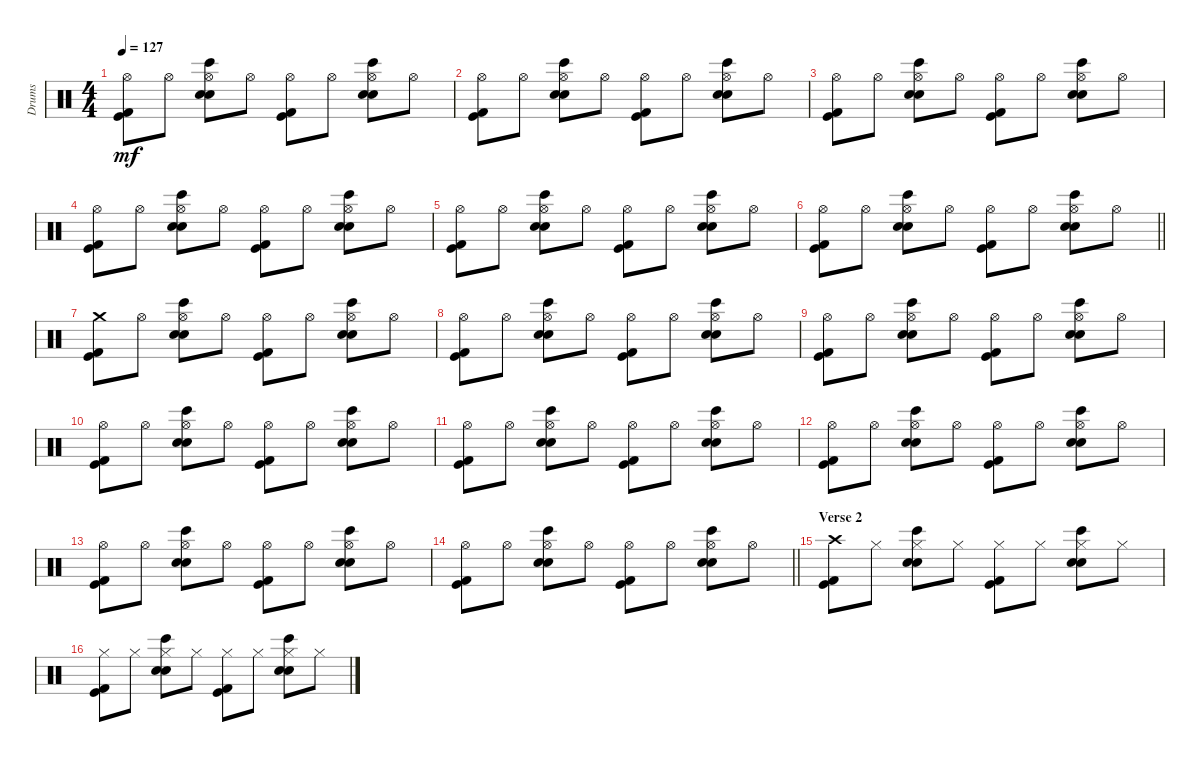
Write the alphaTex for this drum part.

\track ("Drums" "Drums") {instrument percussion}
\staff {score}
\articulation defaults
\ts (4 4)
\tempo 127
\clef neutral
\ks c
("Hi-Hat (open)" "Kick (hit) 2" "Kick (hit)").8{dy mf} "Hi-Hat (open)".8 ("Hi-Hat (open)" "Bongo High (hit)" "Snare (hit) 2" "Electric Snare (hit)").8 "Hi-Hat (open)".8 ("Hi-Hat (open)" "Kick (hit) 2" "Kick (hit)").8 "Hi-Hat (open)".8 ("Hi-Hat (open)" "Bongo High (hit)" "Snare (hit) 2" "Electric Snare (hit)").8 "Hi-Hat (open)".8 |
("Hi-Hat (open)" "Kick (hit) 2" "Kick (hit)").8 "Hi-Hat (open)".8 ("Hi-Hat (open)" "Bongo High (hit)" "Snare (hit) 2" "Electric Snare (hit)").8 "Hi-Hat (open)".8 ("Hi-Hat (open)" "Kick (hit) 2" "Kick (hit)").8 "Hi-Hat (open)".8 ("Hi-Hat (open)" "Bongo High (hit)" "Snare (hit) 2" "Electric Snare (hit)").8 "Hi-Hat (open)".8 |
("Hi-Hat (open)" "Kick (hit) 2" "Kick (hit)").8 "Hi-Hat (open)".8 ("Hi-Hat (open)" "Bongo High (hit)" "Snare (hit) 2" "Electric Snare (hit)").8 "Hi-Hat (open)".8 ("Hi-Hat (open)" "Kick (hit) 2" "Kick (hit)").8 "Hi-Hat (open)".8 ("Hi-Hat (open)" "Bongo High (hit)" "Snare (hit) 2" "Electric Snare (hit)").8 "Hi-Hat (open)".8 |
("Hi-Hat (open)" "Kick (hit) 2" "Kick (hit)").8 "Hi-Hat (open)".8 ("Hi-Hat (open)" "Bongo High (hit)" "Snare (hit) 2" "Electric Snare (hit)").8 "Hi-Hat (open)".8 ("Hi-Hat (open)" "Kick (hit) 2" "Kick (hit)").8 "Hi-Hat (open)".8 ("Hi-Hat (open)" "Bongo High (hit)" "Snare (hit) 2" "Electric Snare (hit)").8 "Hi-Hat (open)".8 |
("Hi-Hat (open)" "Kick (hit) 2" "Kick (hit)").8 "Hi-Hat (open)".8 ("Hi-Hat (open)" "Bongo High (hit)" "Snare (hit) 2" "Electric Snare (hit)").8 "Hi-Hat (open)".8 ("Hi-Hat (open)" "Kick (hit) 2" "Kick (hit)").8 "Hi-Hat (open)".8 ("Hi-Hat (open)" "Bongo High (hit)" "Snare (hit) 2" "Electric Snare (hit)").8 "Hi-Hat (open)".8 |
\barLineRight lightlight
("Hi-Hat (open)" "Kick (hit) 2" "Kick (hit)").8 "Hi-Hat (open)".8 ("Hi-Hat (open)" "Bongo High (hit)" "Snare (hit) 2" "Electric Snare (hit)").8 "Hi-Hat (open)".8 ("Hi-Hat (open)" "Kick (hit) 2" "Kick (hit)").8 "Hi-Hat (open)".8 ("Hi-Hat (open)" "Bongo High (hit)" "Snare (hit) 2" "Electric Snare (hit)").8 "Hi-Hat (open)".8 |
("Crash medium (hit)" "Kick (hit) 2" "Kick (hit)").8 "Hi-Hat (open)".8 ("Hi-Hat (open)" "Bongo High (hit)" "Snare (hit) 2" "Electric Snare (hit)").8 "Hi-Hat (open)".8 ("Hi-Hat (open)" "Kick (hit) 2" "Kick (hit)").8 "Hi-Hat (open)".8 ("Hi-Hat (open)" "Bongo High (hit)" "Snare (hit) 2" "Electric Snare (hit)").8 "Hi-Hat (open)".8 |
("Hi-Hat (open)" "Kick (hit) 2" "Kick (hit)").8 "Hi-Hat (open)".8 ("Hi-Hat (open)" "Bongo High (hit)" "Snare (hit) 2" "Electric Snare (hit)").8 "Hi-Hat (open)".8 ("Hi-Hat (open)" "Kick (hit) 2" "Kick (hit)").8 "Hi-Hat (open)".8 ("Hi-Hat (open)" "Bongo High (hit)" "Snare (hit) 2" "Electric Snare (hit)").8 "Hi-Hat (open)".8 |
("Hi-Hat (open)" "Kick (hit) 2" "Kick (hit)").8 "Hi-Hat (open)".8 ("Hi-Hat (open)" "Bongo High (hit)" "Snare (hit) 2" "Electric Snare (hit)").8 "Hi-Hat (open)".8 ("Hi-Hat (open)" "Kick (hit) 2" "Kick (hit)").8 "Hi-Hat (open)".8 ("Hi-Hat (open)" "Bongo High (hit)" "Snare (hit) 2" "Electric Snare (hit)").8 "Hi-Hat (open)".8 |
("Hi-Hat (open)" "Kick (hit) 2" "Kick (hit)").8 "Hi-Hat (open)".8 ("Hi-Hat (open)" "Bongo High (hit)" "Snare (hit) 2" "Electric Snare (hit)").8 "Hi-Hat (open)".8 ("Hi-Hat (open)" "Kick (hit) 2" "Kick (hit)").8 "Hi-Hat (open)".8 ("Hi-Hat (open)" "Bongo High (hit)" "Snare (hit) 2" "Electric Snare (hit)").8 "Hi-Hat (open)".8 |
("Hi-Hat (open)" "Kick (hit) 2" "Kick (hit)").8 "Hi-Hat (open)".8 ("Hi-Hat (open)" "Bongo High (hit)" "Snare (hit) 2" "Electric Snare (hit)").8 "Hi-Hat (open)".8 ("Hi-Hat (open)" "Kick (hit) 2" "Kick (hit)").8 "Hi-Hat (open)".8 ("Hi-Hat (open)" "Bongo High (hit)" "Snare (hit) 2" "Electric Snare (hit)").8 "Hi-Hat (open)".8 |
("Hi-Hat (open)" "Kick (hit) 2" "Kick (hit)").8 "Hi-Hat (open)".8 ("Hi-Hat (open)" "Bongo High (hit)" "Snare (hit) 2" "Electric Snare (hit)").8 "Hi-Hat (open)".8 ("Hi-Hat (open)" "Kick (hit) 2" "Kick (hit)").8 "Hi-Hat (open)".8 ("Hi-Hat (open)" "Bongo High (hit)" "Snare (hit) 2" "Electric Snare (hit)").8 "Hi-Hat (open)".8 |
("Hi-Hat (open)" "Kick (hit) 2" "Kick (hit)").8 "Hi-Hat (open)".8 ("Hi-Hat (open)" "Bongo High (hit)" "Snare (hit) 2" "Electric Snare (hit)").8 "Hi-Hat (open)".8 ("Hi-Hat (open)" "Kick (hit) 2" "Kick (hit)").8 "Hi-Hat (open)".8 ("Hi-Hat (open)" "Bongo High (hit)" "Snare (hit) 2" "Electric Snare (hit)").8 "Hi-Hat (open)".8 |
\barLineRight lightlight
("Hi-Hat (open)" "Kick (hit) 2" "Kick (hit)").8 "Hi-Hat (open)".8 ("Hi-Hat (open)" "Bongo High (hit)" "Snare (hit) 2" "Electric Snare (hit)").8 "Hi-Hat (open)".8 ("Hi-Hat (open)" "Kick (hit) 2" "Kick (hit)").8 "Hi-Hat (open)".8 ("Hi-Hat (open)" "Bongo High (hit)" "Snare (hit) 2" "Electric Snare (hit)").8 "Hi-Hat (open)".8 |
\section ("" "Verse 2")
("Crash high (hit)" "Kick (hit) 2" "Kick (hit)").8 "Hi-Hat (closed)".8 ("Hi-Hat (closed)" "Bongo High (hit)" "Snare (hit) 2" "Electric Snare (hit)").8 "Hi-Hat (closed)".8 ("Hi-Hat (closed)" "Kick (hit) 2" "Kick (hit)").8 "Hi-Hat (closed)".8 ("Hi-Hat (closed)" "Bongo High (hit)" "Snare (hit) 2" "Electric Snare (hit)").8 "Hi-Hat (closed)".8 |
("Hi-Hat (closed)" "Kick (hit) 2" "Kick (hit)").8 "Hi-Hat (closed)".8 ("Hi-Hat (closed)" "Bongo High (hit)" "Snare (hit) 2" "Electric Snare (hit)").8 "Hi-Hat (closed)".8 ("Hi-Hat (closed)" "Kick (hit) 2" "Kick (hit)").8 "Hi-Hat (closed)".8 ("Hi-Hat (closed)" "Bongo High (hit)" "Snare (hit) 2" "Electric Snare (hit)").8 "Hi-Hat (closed)".8
